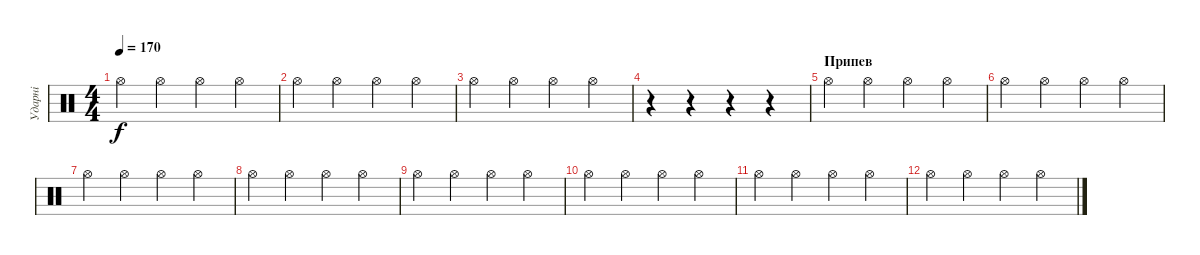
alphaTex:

\track ("Ударні" "Ударні") {instrument percussion}
\staff {score}
\articulation defaults
\ts (4 4)
\tempo 170
\clef neutral
\ks c "Hi-Hat (open)".4{dy f} "Hi-Hat (open)".4 "Hi-Hat (open)".4 "Hi-Hat (open)".4
|
"Hi-Hat (open)".4 "Hi-Hat (open)".4 "Hi-Hat (open)".4 "Hi-Hat (open)".4 |
"Hi-Hat (open)".4 "Hi-Hat (open)".4 "Hi-Hat (open)".4 "Hi-Hat (open)".4 |
r.4 r.4 r.4 r.4 |
\section ("" "Припев")
"Hi-Hat (open)".4 "Hi-Hat (open)".4 "Hi-Hat (open)".4 "Hi-Hat (open)".4 |
"Hi-Hat (open)".4 "Hi-Hat (open)".4 "Hi-Hat (open)".4 "Hi-Hat (open)".4 |
"Hi-Hat (open)".4 "Hi-Hat (open)".4 "Hi-Hat (open)".4 "Hi-Hat (open)".4 |
"Hi-Hat (open)".4 "Hi-Hat (open)".4 "Hi-Hat (open)".4 "Hi-Hat (open)".4 |
"Hi-Hat (open)".4 "Hi-Hat (open)".4 "Hi-Hat (open)".4 "Hi-Hat (open)".4 |
"Hi-Hat (open)".4 "Hi-Hat (open)".4 "Hi-Hat (open)".4 "Hi-Hat (open)".4 |
"Hi-Hat (open)".4 "Hi-Hat (open)".4 "Hi-Hat (open)".4 "Hi-Hat (open)".4 |
"Hi-Hat (open)".4 "Hi-Hat (open)".4 "Hi-Hat (open)".4 "Hi-Hat (open)".4
